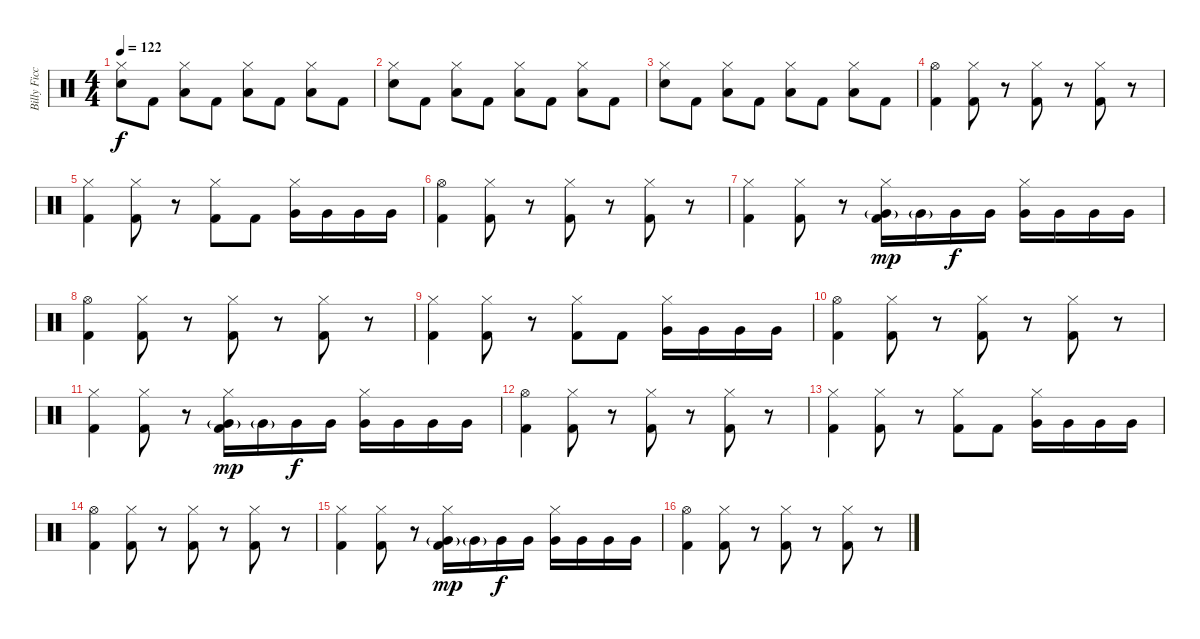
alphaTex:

\track ("Billy Ficca" "Billy Ficc") {instrument percussion}
\staff {score}
\articulation defaults
\ts (4 4)
\tempo 122
\clef neutral
\ks c
("Hi-Hat (closed)" "Electric Snare (hit)").8{dy f} "Kick (hit) 2".8 ("Hi-Hat (closed)" "Low Floor Tom (hit)").8 "Kick (hit) 2".8 ("Hi-Hat (closed)" "Low Floor Tom (hit)").8 "Kick (hit) 2".8 ("Hi-Hat (closed)" "Low Floor Tom (hit)").8 "Kick (hit) 2".8 |
("Hi-Hat (closed)" "Electric Snare (hit)").8 "Kick (hit) 2".8 ("Hi-Hat (closed)" "Low Floor Tom (hit)").8 "Kick (hit) 2".8 ("Hi-Hat (closed)" "Low Floor Tom (hit)").8 "Kick (hit) 2".8 ("Hi-Hat (closed)" "Low Floor Tom (hit)").8 "Kick (hit) 2".8 |
("Hi-Hat (closed)" "Electric Snare (hit)").8 "Kick (hit) 2".8 ("Hi-Hat (closed)" "Low Floor Tom (hit)").8 "Kick (hit) 2".8 ("Hi-Hat (closed)" "Low Floor Tom (hit)").8 "Kick (hit) 2".8 ("Hi-Hat (closed)" "Low Floor Tom (hit)").8 "Kick (hit) 2".8 |
("Hi-Hat (open)" "Kick (hit) 2").4 ("Hi-Hat (closed)" "Kick (hit) 2").8 r.8 ("Hi-Hat (closed)" "Kick (hit) 2").8 r.8 ("Hi-Hat (closed)" "Kick (hit) 2").8 r.8 |
("Hi-Hat (closed)" "Kick (hit) 2").4 ("Hi-Hat (closed)" "Kick (hit) 2").8 r.8 ("Hi-Hat (closed)" "Kick (hit) 2").8 "Kick (hit) 2".8 ("Hi-Hat (closed)" "Very Low Tom (hit)").16 "Very Low Tom (hit)".16 "Very Low Tom (hit)".16 "Very Low Tom (hit)".16 |
("Hi-Hat (open)" "Kick (hit) 2").4 ("Hi-Hat (closed)" "Kick (hit) 2").8 r.8 ("Hi-Hat (closed)" "Kick (hit) 2").8 r.8 ("Hi-Hat (closed)" "Kick (hit) 2").8 r.8 |
("Hi-Hat (closed)" "Kick (hit) 2").4 ("Hi-Hat (closed)" "Kick (hit) 2").8 r.8 ("Hi-Hat (closed)" "Very Low Tom (hit)"{g} "Kick (hit) 2").16{dy mp} "Very Low Tom (hit)"{g}.16 "Very Low Tom (hit)".16{dy f} "Very Low Tom (hit)".16 ("Hi-Hat (closed)" "Very Low Tom (hit)").16 "Very Low Tom (hit)".16 "Very Low Tom (hit)".16 "Very Low Tom (hit)".16 |
("Hi-Hat (open)" "Kick (hit) 2").4 ("Hi-Hat (closed)" "Kick (hit) 2").8 r.8 ("Hi-Hat (closed)" "Kick (hit) 2").8 r.8 ("Hi-Hat (closed)" "Kick (hit) 2").8 r.8 |
("Hi-Hat (closed)" "Kick (hit) 2").4 ("Hi-Hat (closed)" "Kick (hit) 2").8 r.8 ("Hi-Hat (closed)" "Kick (hit) 2").8 "Kick (hit) 2".8 ("Hi-Hat (closed)" "Very Low Tom (hit)").16 "Very Low Tom (hit)".16 "Very Low Tom (hit)".16 "Very Low Tom (hit)".16 |
("Hi-Hat (open)" "Kick (hit) 2").4 ("Hi-Hat (closed)" "Kick (hit) 2").8 r.8 ("Hi-Hat (closed)" "Kick (hit) 2").8 r.8 ("Hi-Hat (closed)" "Kick (hit) 2").8 r.8 |
("Hi-Hat (closed)" "Kick (hit) 2").4 ("Hi-Hat (closed)" "Kick (hit) 2").8 r.8 ("Hi-Hat (closed)" "Very Low Tom (hit)"{g} "Kick (hit) 2").16{dy mp} "Very Low Tom (hit)"{g}.16 "Very Low Tom (hit)".16{dy f} "Very Low Tom (hit)".16 ("Hi-Hat (closed)" "Very Low Tom (hit)").16 "Very Low Tom (hit)".16 "Very Low Tom (hit)".16 "Very Low Tom (hit)".16 |
("Hi-Hat (open)" "Kick (hit) 2").4 ("Hi-Hat (closed)" "Kick (hit) 2").8 r.8 ("Hi-Hat (closed)" "Kick (hit) 2").8 r.8 ("Hi-Hat (closed)" "Kick (hit) 2").8 r.8 |
("Hi-Hat (closed)" "Kick (hit) 2").4 ("Hi-Hat (closed)" "Kick (hit) 2").8 r.8 ("Hi-Hat (closed)" "Kick (hit) 2").8 "Kick (hit) 2".8 ("Hi-Hat (closed)" "Very Low Tom (hit)").16 "Very Low Tom (hit)".16 "Very Low Tom (hit)".16 "Very Low Tom (hit)".16 |
("Hi-Hat (open)" "Kick (hit) 2").4 ("Hi-Hat (closed)" "Kick (hit) 2").8 r.8 ("Hi-Hat (closed)" "Kick (hit) 2").8 r.8 ("Hi-Hat (closed)" "Kick (hit) 2").8 r.8 |
("Hi-Hat (closed)" "Kick (hit) 2").4 ("Hi-Hat (closed)" "Kick (hit) 2").8 r.8 ("Hi-Hat (closed)" "Very Low Tom (hit)"{g} "Kick (hit) 2").16{dy mp} "Very Low Tom (hit)"{g}.16 "Very Low Tom (hit)".16{dy f} "Very Low Tom (hit)".16 ("Hi-Hat (closed)" "Very Low Tom (hit)").16 "Very Low Tom (hit)".16 "Very Low Tom (hit)".16 "Very Low Tom (hit)".16 |
("Hi-Hat (open)" "Kick (hit) 2").4 ("Hi-Hat (closed)" "Kick (hit) 2").8 r.8 ("Hi-Hat (closed)" "Kick (hit) 2").8 r.8 ("Hi-Hat (closed)" "Kick (hit) 2").8 r.8
